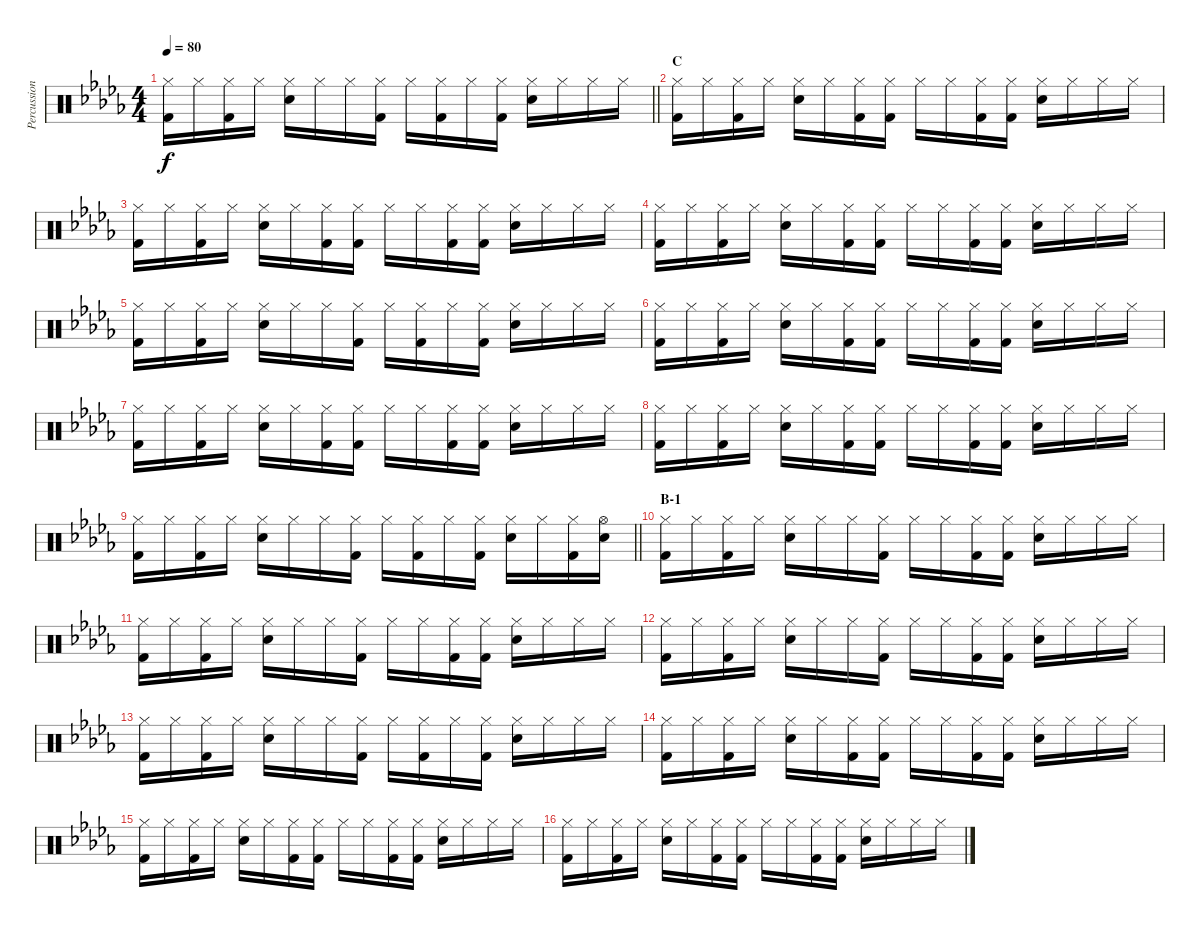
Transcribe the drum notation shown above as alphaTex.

\track ("Percussion" "Percussion") {instrument percussion}
\staff {score}
\articulation defaults
\ts (4 4)
\tempo 80
\clef neutral
\barLineRight lightlight
\ks db
("Hi-Hat (closed)" "Kick (hit) 2").16{dy f} "Hi-Hat (closed)".16 ("Hi-Hat (closed)" "Kick (hit) 2").16 "Hi-Hat (closed)".16 ("Hi-Hat (closed)" "Electric Snare (hit)").16 "Hi-Hat (closed)".16 "Hi-Hat (closed)".16 ("Hi-Hat (closed)" "Kick (hit) 2").16 "Hi-Hat (closed)".16 ("Hi-Hat (closed)" "Kick (hit) 2").16 "Hi-Hat (closed)".16 ("Hi-Hat (closed)" "Kick (hit) 2").16 ("Hi-Hat (closed)" "Electric Snare (hit)").16 "Hi-Hat (closed)".16 "Hi-Hat (closed)".16 "Hi-Hat (closed)".16 |
\section ("" "C")
("Hi-Hat (closed)" "Kick (hit) 2").16 "Hi-Hat (closed)".16 ("Hi-Hat (closed)" "Kick (hit) 2").16 "Hi-Hat (closed)".16 ("Hi-Hat (closed)" "Electric Snare (hit)").16 "Hi-Hat (closed)".16 ("Hi-Hat (closed)" "Kick (hit) 2").16 ("Hi-Hat (closed)" "Kick (hit) 2").16 "Hi-Hat (closed)".16 "Hi-Hat (closed)".16 ("Hi-Hat (closed)" "Kick (hit) 2").16 ("Hi-Hat (closed)" "Kick (hit) 2").16 ("Hi-Hat (closed)" "Electric Snare (hit)").16 "Hi-Hat (closed)".16 "Hi-Hat (closed)".16 "Hi-Hat (closed)".16 |
("Hi-Hat (closed)" "Kick (hit) 2").16 "Hi-Hat (closed)".16 ("Hi-Hat (closed)" "Kick (hit) 2").16 "Hi-Hat (closed)".16 ("Hi-Hat (closed)" "Electric Snare (hit)").16 "Hi-Hat (closed)".16 ("Hi-Hat (closed)" "Kick (hit) 2").16 ("Hi-Hat (closed)" "Kick (hit) 2").16 "Hi-Hat (closed)".16 "Hi-Hat (closed)".16 ("Hi-Hat (closed)" "Kick (hit) 2").16 ("Hi-Hat (closed)" "Kick (hit) 2").16 ("Hi-Hat (closed)" "Electric Snare (hit)").16 "Hi-Hat (closed)".16 "Hi-Hat (closed)".16 "Hi-Hat (closed)".16 |
("Hi-Hat (closed)" "Kick (hit) 2").16 "Hi-Hat (closed)".16 ("Hi-Hat (closed)" "Kick (hit) 2").16 "Hi-Hat (closed)".16 ("Hi-Hat (closed)" "Electric Snare (hit)").16 "Hi-Hat (closed)".16 ("Hi-Hat (closed)" "Kick (hit) 2").16 ("Hi-Hat (closed)" "Kick (hit) 2").16 "Hi-Hat (closed)".16 "Hi-Hat (closed)".16 ("Hi-Hat (closed)" "Kick (hit) 2").16 ("Hi-Hat (closed)" "Kick (hit) 2").16 ("Hi-Hat (closed)" "Electric Snare (hit)").16 "Hi-Hat (closed)".16 "Hi-Hat (closed)".16 "Hi-Hat (closed)".16 |
("Hi-Hat (closed)" "Kick (hit) 2").16 "Hi-Hat (closed)".16 ("Hi-Hat (closed)" "Kick (hit) 2").16 "Hi-Hat (closed)".16 ("Hi-Hat (closed)" "Electric Snare (hit)").16 "Hi-Hat (closed)".16 "Hi-Hat (closed)".16 ("Hi-Hat (closed)" "Kick (hit) 2").16 "Hi-Hat (closed)".16 ("Hi-Hat (closed)" "Kick (hit) 2").16 "Hi-Hat (closed)".16 ("Hi-Hat (closed)" "Kick (hit) 2").16 ("Hi-Hat (closed)" "Electric Snare (hit)").16 "Hi-Hat (closed)".16 "Hi-Hat (closed)".16 "Hi-Hat (closed)".16 |
("Hi-Hat (closed)" "Kick (hit) 2").16 "Hi-Hat (closed)".16 ("Hi-Hat (closed)" "Kick (hit) 2").16 "Hi-Hat (closed)".16 ("Hi-Hat (closed)" "Electric Snare (hit)").16 "Hi-Hat (closed)".16 ("Hi-Hat (closed)" "Kick (hit) 2").16 ("Hi-Hat (closed)" "Kick (hit) 2").16 "Hi-Hat (closed)".16 "Hi-Hat (closed)".16 ("Hi-Hat (closed)" "Kick (hit) 2").16 ("Hi-Hat (closed)" "Kick (hit) 2").16 ("Hi-Hat (closed)" "Electric Snare (hit)").16 "Hi-Hat (closed)".16 "Hi-Hat (closed)".16 "Hi-Hat (closed)".16 |
("Hi-Hat (closed)" "Kick (hit) 2").16 "Hi-Hat (closed)".16 ("Hi-Hat (closed)" "Kick (hit) 2").16 "Hi-Hat (closed)".16 ("Hi-Hat (closed)" "Electric Snare (hit)").16 "Hi-Hat (closed)".16 ("Hi-Hat (closed)" "Kick (hit) 2").16 ("Hi-Hat (closed)" "Kick (hit) 2").16 "Hi-Hat (closed)".16 "Hi-Hat (closed)".16 ("Hi-Hat (closed)" "Kick (hit) 2").16 ("Hi-Hat (closed)" "Kick (hit) 2").16 ("Hi-Hat (closed)" "Electric Snare (hit)").16 "Hi-Hat (closed)".16 "Hi-Hat (closed)".16 "Hi-Hat (closed)".16 |
("Hi-Hat (closed)" "Kick (hit) 2").16 "Hi-Hat (closed)".16 ("Hi-Hat (closed)" "Kick (hit) 2").16 "Hi-Hat (closed)".16 ("Hi-Hat (closed)" "Electric Snare (hit)").16 "Hi-Hat (closed)".16 ("Hi-Hat (closed)" "Kick (hit) 2").16 ("Hi-Hat (closed)" "Kick (hit) 2").16 "Hi-Hat (closed)".16 "Hi-Hat (closed)".16 ("Hi-Hat (closed)" "Kick (hit) 2").16 ("Hi-Hat (closed)" "Kick (hit) 2").16 ("Hi-Hat (closed)" "Electric Snare (hit)").16 "Hi-Hat (closed)".16 "Hi-Hat (closed)".16 "Hi-Hat (closed)".16 |
\barLineRight lightlight
("Hi-Hat (closed)" "Kick (hit) 2").16 "Hi-Hat (closed)".16 ("Hi-Hat (closed)" "Kick (hit) 2").16 "Hi-Hat (closed)".16 ("Hi-Hat (closed)" "Electric Snare (hit)").16 "Hi-Hat (closed)".16 "Hi-Hat (closed)".16 ("Hi-Hat (closed)" "Kick (hit) 2").16 "Hi-Hat (closed)".16 ("Hi-Hat (closed)" "Kick (hit) 2").16 "Hi-Hat (closed)".16 ("Hi-Hat (closed)" "Kick (hit) 2").16 ("Hi-Hat (closed)" "Electric Snare (hit)").16 "Hi-Hat (closed)".16 ("Hi-Hat (closed)" "Kick (hit) 2").16 ("Hi-Hat (open)" "Electric Snare (hit)").16 |
\section ("" "B-1")
("Hi-Hat (closed)" "Kick (hit) 2").16 "Hi-Hat (closed)".16 ("Hi-Hat (closed)" "Kick (hit) 2").16 "Hi-Hat (closed)".16 ("Hi-Hat (closed)" "Electric Snare (hit)").16 "Hi-Hat (closed)".16 "Hi-Hat (closed)".16 ("Hi-Hat (closed)" "Kick (hit) 2").16 "Hi-Hat (closed)".16 "Hi-Hat (closed)".16 ("Hi-Hat (closed)" "Kick (hit) 2").16 ("Hi-Hat (closed)" "Kick (hit) 2").16 ("Hi-Hat (closed)" "Electric Snare (hit)").16 "Hi-Hat (closed)".16 "Hi-Hat (closed)".16 "Hi-Hat (closed)".16 |
("Hi-Hat (closed)" "Kick (hit) 2").16 "Hi-Hat (closed)".16 ("Hi-Hat (closed)" "Kick (hit) 2").16 "Hi-Hat (closed)".16 ("Hi-Hat (closed)" "Electric Snare (hit)").16 "Hi-Hat (closed)".16 "Hi-Hat (closed)".16 ("Hi-Hat (closed)" "Kick (hit) 2").16 "Hi-Hat (closed)".16 "Hi-Hat (closed)".16 ("Hi-Hat (closed)" "Kick (hit) 2").16 ("Hi-Hat (closed)" "Kick (hit) 2").16 ("Hi-Hat (closed)" "Electric Snare (hit)").16 "Hi-Hat (closed)".16 "Hi-Hat (closed)".16 "Hi-Hat (closed)".16 |
("Hi-Hat (closed)" "Kick (hit) 2").16 "Hi-Hat (closed)".16 ("Hi-Hat (closed)" "Kick (hit) 2").16 "Hi-Hat (closed)".16 ("Hi-Hat (closed)" "Electric Snare (hit)").16 "Hi-Hat (closed)".16 "Hi-Hat (closed)".16 ("Hi-Hat (closed)" "Kick (hit) 2").16 "Hi-Hat (closed)".16 "Hi-Hat (closed)".16 ("Hi-Hat (closed)" "Kick (hit) 2").16 ("Hi-Hat (closed)" "Kick (hit) 2").16 ("Hi-Hat (closed)" "Electric Snare (hit)").16 "Hi-Hat (closed)".16 "Hi-Hat (closed)".16 "Hi-Hat (closed)".16 |
("Hi-Hat (closed)" "Kick (hit) 2").16 "Hi-Hat (closed)".16 ("Hi-Hat (closed)" "Kick (hit) 2").16 "Hi-Hat (closed)".16 ("Hi-Hat (closed)" "Electric Snare (hit)").16 "Hi-Hat (closed)".16 "Hi-Hat (closed)".16 ("Hi-Hat (closed)" "Kick (hit) 2").16 "Hi-Hat (closed)".16 ("Hi-Hat (closed)" "Kick (hit) 2").16 "Hi-Hat (closed)".16 ("Hi-Hat (closed)" "Kick (hit) 2").16 ("Hi-Hat (closed)" "Electric Snare (hit)").16 "Hi-Hat (closed)".16 "Hi-Hat (closed)".16 "Hi-Hat (closed)".16 |
("Hi-Hat (closed)" "Kick (hit) 2").16 "Hi-Hat (closed)".16 ("Hi-Hat (closed)" "Kick (hit) 2").16 "Hi-Hat (closed)".16 ("Hi-Hat (closed)" "Electric Snare (hit)").16 "Hi-Hat (closed)".16 ("Hi-Hat (closed)" "Kick (hit) 2").16 ("Hi-Hat (closed)" "Kick (hit) 2").16 "Hi-Hat (closed)".16 "Hi-Hat (closed)".16 ("Hi-Hat (closed)" "Kick (hit) 2").16 ("Hi-Hat (closed)" "Kick (hit) 2").16 ("Hi-Hat (closed)" "Electric Snare (hit)").16 "Hi-Hat (closed)".16 "Hi-Hat (closed)".16 "Hi-Hat (closed)".16 |
("Hi-Hat (closed)" "Kick (hit) 2").16 "Hi-Hat (closed)".16 ("Hi-Hat (closed)" "Kick (hit) 2").16 "Hi-Hat (closed)".16 ("Hi-Hat (closed)" "Electric Snare (hit)").16 "Hi-Hat (closed)".16 ("Hi-Hat (closed)" "Kick (hit) 2").16 ("Hi-Hat (closed)" "Kick (hit) 2").16 "Hi-Hat (closed)".16 "Hi-Hat (closed)".16 ("Hi-Hat (closed)" "Kick (hit) 2").16 ("Hi-Hat (closed)" "Kick (hit) 2").16 ("Hi-Hat (closed)" "Electric Snare (hit)").16 "Hi-Hat (closed)".16 "Hi-Hat (closed)".16 "Hi-Hat (closed)".16 |
("Hi-Hat (closed)" "Kick (hit) 2").16 "Hi-Hat (closed)".16 ("Hi-Hat (closed)" "Kick (hit) 2").16 "Hi-Hat (closed)".16 ("Hi-Hat (closed)" "Electric Snare (hit)").16 "Hi-Hat (closed)".16 ("Hi-Hat (closed)" "Kick (hit) 2").16 ("Hi-Hat (closed)" "Kick (hit) 2").16 "Hi-Hat (closed)".16 "Hi-Hat (closed)".16 ("Hi-Hat (closed)" "Kick (hit) 2").16 ("Hi-Hat (closed)" "Kick (hit) 2").16 ("Hi-Hat (closed)" "Electric Snare (hit)").16 "Hi-Hat (closed)".16 "Hi-Hat (closed)".16 "Hi-Hat (closed)".16
